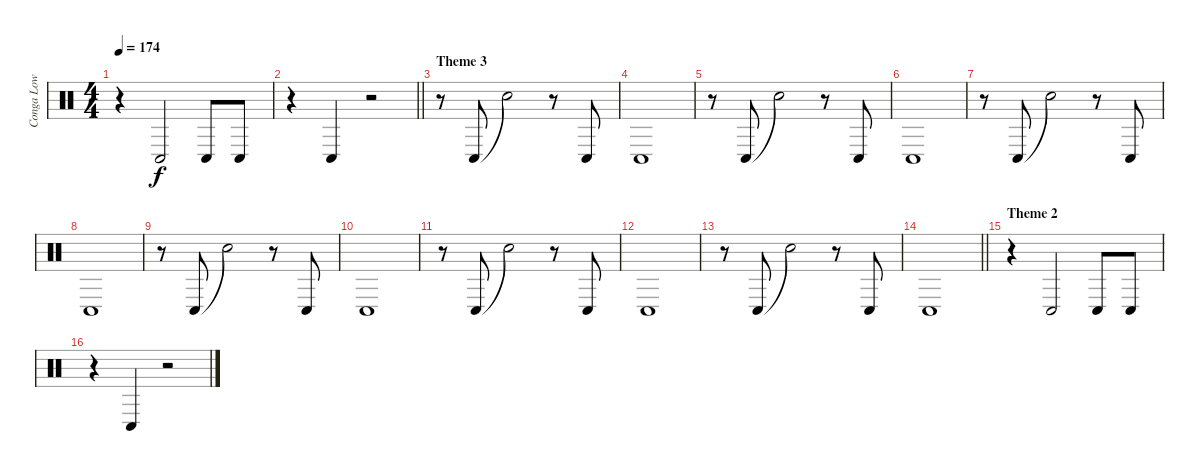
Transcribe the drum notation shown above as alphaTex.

\track ("Conga Low" "Conga Low") {instrument percussion}
\staff {score}
\articulation defaults
\ts (4 4)
\tempo 174
\clef neutral
\ks c
r.4{dy f} "Conga low (hit)".2 "Conga low (hit)".8 "Conga low (hit)".8 |
\barLineRight lightlight
r.4 "Conga low (hit)".4 r.2 |
\section ("" "Theme 3")
r.8 "Conga low (hit)".8 "Snare (hit)"{t}.2 r.8 "Conga low (hit)".8 |
"Conga low (hit)".1 |
r.8 "Conga low (hit)".8 "Snare (hit)"{t}.2 r.8 "Conga low (hit)".8 |
"Conga low (hit)".1 |
r.8 "Conga low (hit)".8 "Snare (hit)"{t}.2 r.8 "Conga low (hit)".8 |
"Conga low (hit)".1 |
r.8 "Conga low (hit)".8 "Snare (hit)"{t}.2 r.8 "Conga low (hit)".8 |
"Conga low (hit)".1 |
r.8 "Conga low (hit)".8 "Snare (hit)"{t}.2 r.8 "Conga low (hit)".8 |
"Conga low (hit)".1 |
r.8 "Conga low (hit)".8 "Snare (hit)"{t}.2 r.8 "Conga low (hit)".8 |
\barLineRight lightlight "Conga low (hit)".1
|
\section ("" "Theme 2")
r.4 "Conga low (hit)".2 "Conga low (hit)".8 "Conga low (hit)".8 |
r.4 "Conga low (hit)".4 r.2
